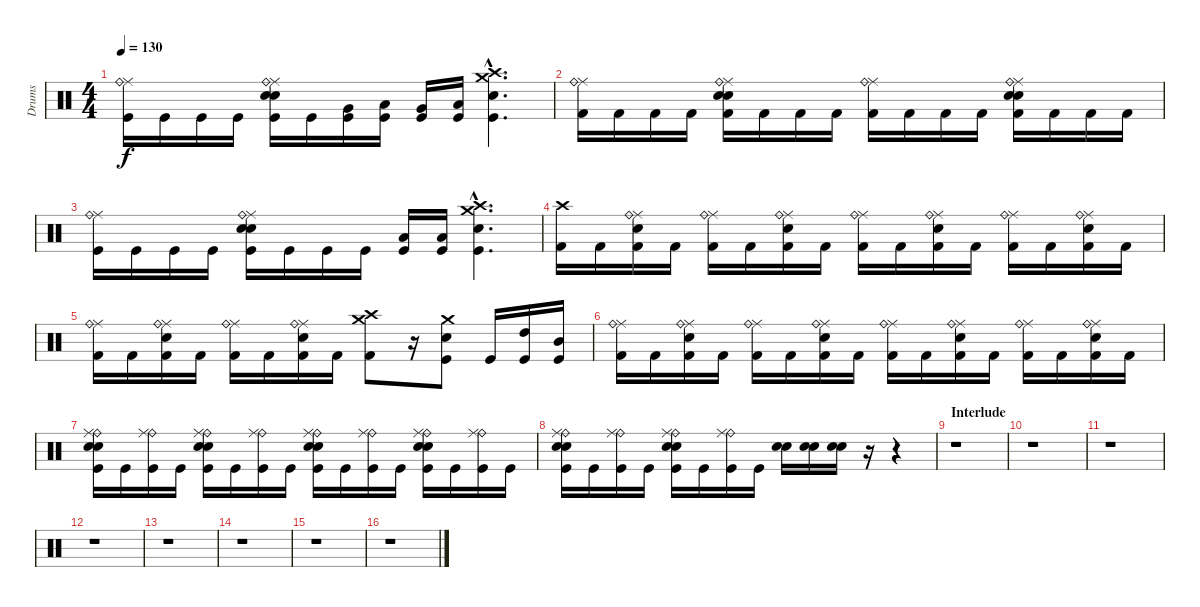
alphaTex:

\track ("Drums" "Drums") {instrument percussion}
\staff {score}
\articulation defaults
\ts (4 4)
\tempo 130
\clef neutral
\ks c
("Ride (middle)" "Ride (bell)" "Kick (hit)").16{dy f} "Kick (hit)".16 "Kick (hit)".16 "Kick (hit)".16 ("Ride (middle)" "Ride (bell)" "Electric Snare (hit)" "Snare (hit) 2" "Kick (hit)").16 "Kick (hit)".16 ("Very Low Tom (hit)" "Kick (hit)").16 ("Low Tom (hit)" "Kick (hit)").16 ("Very Low Tom (hit)" "Kick (hit)").16 ("Low Floor Tom (hit)" "Kick (hit)").16 ("Crash medium (hit)"{hac} "Crash high (hit)"{hac} "Electric Snare (hit)"{hac} "Kick (hit)"{hac}).4{d} |
("Ride (middle)" "Ride (bell)" "Kick (hit) 2").16 "Kick (hit) 2".16 "Kick (hit) 2".16 "Kick (hit) 2".16 ("Ride (middle)" "Ride (bell)" "Electric Snare (hit)" "Snare (hit) 2" "Kick (hit) 2").16 "Kick (hit) 2".16 "Kick (hit) 2".16 "Kick (hit) 2".16 ("Ride (middle)" "Ride (bell)" "Kick (hit) 2").16 "Kick (hit) 2".16 "Kick (hit) 2".16 "Kick (hit) 2".16 ("Ride (middle)" "Ride (bell)" "Electric Snare (hit)" "Snare (hit) 2" "Kick (hit) 2").16 "Kick (hit) 2".16 "Kick (hit) 2".16 "Kick (hit) 2".16 |
("Ride (middle)" "Ride (bell)" "Kick (hit)").16 "Kick (hit)".16 "Kick (hit)".16 "Kick (hit)".16 ("Ride (middle)" "Ride (bell)" "Electric Snare (hit)" "Snare (hit) 2" "Kick (hit)").16 "Kick (hit)".16 "Kick (hit)".16 "Kick (hit)".16 ("Low Floor Tom (hit)" "Kick (hit)").16 ("Low Floor Tom (hit)" "Kick (hit)").16 ("Crash medium (hit)"{hac} "Crash high (hit)"{hac} "Electric Snare (hit)"{hac} "Kick (hit)"{hac}).4{d} |
("Crash high (hit)" "Kick (hit) 2").16 "Kick (hit) 2".16 ("Ride (middle)" "Ride (bell)" "Snare (hit) 2" "Kick (hit) 2").16 "Kick (hit) 2".16 ("Ride (middle)" "Ride (bell)" "Kick (hit) 2").16 "Kick (hit) 2".16 ("Ride (middle)" "Ride (bell)" "Snare (hit) 2" "Kick (hit) 2").16 "Kick (hit) 2".16 ("Ride (middle)" "Ride (bell)" "Kick (hit) 2").16 "Kick (hit) 2".16 ("Ride (middle)" "Ride (bell)" "Snare (hit) 2" "Kick (hit) 2").16 "Kick (hit) 2".16 ("Ride (middle)" "Ride (bell)" "Kick (hit) 2").16 "Kick (hit) 2".16 ("Ride (middle)" "Ride (bell)" "Snare (hit) 2" "Kick (hit) 2").16 "Kick (hit) 2".16 |
("Ride (middle)" "Ride (bell)" "Kick (hit) 2").16 "Kick (hit) 2".16 ("Ride (middle)" "Ride (bell)" "Snare (hit) 2" "Kick (hit) 2").16 "Kick (hit) 2".16 ("Ride (middle)" "Ride (bell)" "Kick (hit) 2").16 "Kick (hit) 2".16 ("Ride (middle)" "Ride (bell)" "Snare (hit) 2" "Kick (hit) 2").16 "Kick (hit) 2".16 ("Crash medium (hit)" "Crash high (hit)" "Kick (hit) 2").8 r.16 ("Crash medium (hit)" "Snare (hit) 2" "Kick (hit)").8 "Kick (hit)".16 ("High Tom (hit)" "Kick (hit)").16 ("Mid Tom (hit)" "Kick (hit)").16 |
("Ride (middle)" "Ride (bell)" "Kick (hit) 2").16 "Kick (hit) 2".16 ("Ride (middle)" "Ride (bell)" "Snare (hit) 2" "Kick (hit) 2").16 "Kick (hit) 2".16 ("Ride (middle)" "Ride (bell)" "Kick (hit) 2").16 "Kick (hit) 2".16 ("Ride (middle)" "Ride (bell)" "Snare (hit) 2" "Kick (hit) 2").16 "Kick (hit) 2".16 ("Ride (middle)" "Ride (bell)" "Kick (hit) 2").16 "Kick (hit) 2".16 ("Ride (middle)" "Ride (bell)" "Snare (hit) 2" "Kick (hit) 2").16 "Kick (hit) 2".16 ("Ride (middle)" "Ride (bell)" "Kick (hit) 2").16 "Kick (hit) 2".16 ("Ride (middle)" "Ride (bell)" "Snare (hit) 2" "Kick (hit) 2").16 "Kick (hit) 2".16 |
("Ride (bell)" "Ride (middle)" "Electric Snare (hit)" "Snare (hit) 2" "Kick (hit)").16 "Kick (hit)".16 ("Ride (bell)" "Ride (middle)" "Kick (hit)").16 "Kick (hit)".16 ("Ride (bell)" "Ride (middle)" "Electric Snare (hit)" "Snare (hit) 2" "Kick (hit)").16 "Kick (hit)".16 ("Ride (bell)" "Ride (middle)" "Kick (hit)").16 "Kick (hit)".16 ("Ride (bell)" "Ride (middle)" "Electric Snare (hit)" "Snare (hit) 2" "Kick (hit)").16 "Kick (hit)".16 ("Ride (bell)" "Ride (middle)" "Kick (hit)").16 "Kick (hit)".16 ("Ride (bell)" "Ride (middle)" "Electric Snare (hit)" "Snare (hit) 2" "Kick (hit)").16 "Kick (hit)".16 ("Ride (bell)" "Ride (middle)" "Kick (hit)").16 "Kick (hit)".16 |
("Ride (bell)" "Ride (middle)" "Electric Snare (hit)" "Snare (hit) 2" "Kick (hit)").16 "Kick (hit)".16 ("Ride (bell)" "Ride (middle)" "Kick (hit)").16 "Kick (hit)".16 ("Ride (bell)" "Ride (middle)" "Electric Snare (hit)" "Snare (hit) 2" "Kick (hit)").16 "Kick (hit)".16 ("Ride (bell)" "Ride (middle)" "Kick (hit)").16 "Kick (hit)".16 ("Electric Snare (hit)" "Snare (hit) 2").16 ("Electric Snare (hit)" "Snare (hit) 2").16 ("Electric Snare (hit)" "Snare (hit) 2").16 r.16 r.4 |
\section ("" "Interlude")
r.1 |
r.1 |
r.1 |
r.1 |
r.1 |
r.1 |
r.1 |
r.1
